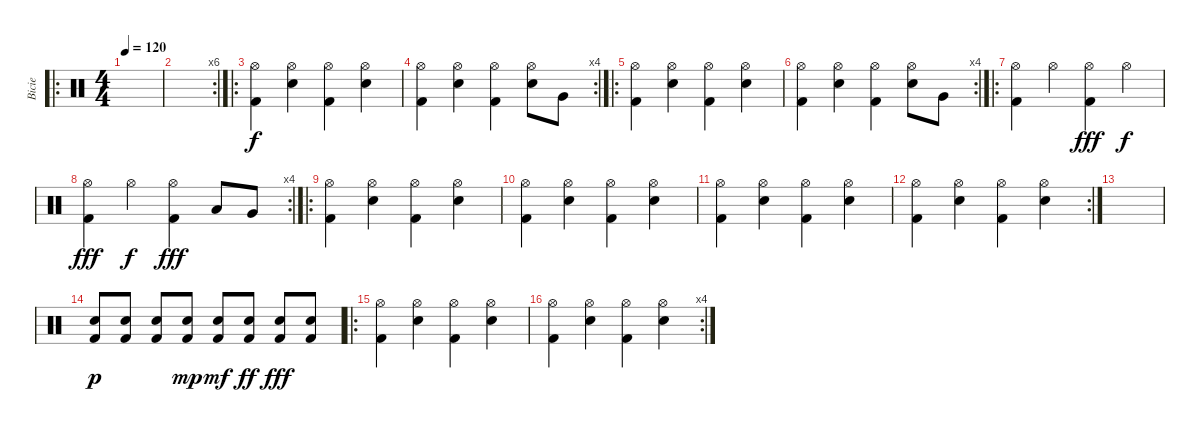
\track ("Bicie" "Bicie") {instrument percussion}
\staff {score}
\articulation defaults
\ro
\ts (4 4)
\tempo 120
\clef neutral
\ks c
|
\rc 6
|
\ro
("Hi-Hat (open)" "Kick (hit) 2").4 ("Hi-Hat (open)" "Snare (hit) 2").4 ("Hi-Hat (open)" "Kick (hit) 2").4 ("Hi-Hat (open)" "Snare (hit) 2").4 |
\rc 4
("Hi-Hat (open)" "Kick (hit) 2").4 ("Hi-Hat (open)" "Snare (hit) 2").4 ("Hi-Hat (open)" "Kick (hit) 2").4 ("Hi-Hat (open)" "Snare (hit) 2").8 "Very Low Tom (hit)".8 |
\ro
("Hi-Hat (open)" "Kick (hit) 2").4 ("Hi-Hat (open)" "Snare (hit) 2").4 ("Hi-Hat (open)" "Kick (hit) 2").4 ("Hi-Hat (open)" "Snare (hit) 2").4 |
\rc 4
("Hi-Hat (open)" "Kick (hit) 2").4 ("Hi-Hat (open)" "Snare (hit) 2").4 ("Hi-Hat (open)" "Kick (hit) 2").4 ("Hi-Hat (open)" "Snare (hit) 2").8 "Very Low Tom (hit)".8 |
\ro
("Hi-Hat (open)" "Kick (hit) 2").4 "Hi-Hat (open)".4{dy f} ("Hi-Hat (open)" "Kick (hit) 2").4{dy fff} "Hi-Hat (open)".4{dy f} |
\rc 4
("Hi-Hat (open)" "Kick (hit) 2").4{dy fff} "Hi-Hat (open)".4{dy f} ("Hi-Hat (open)" "Kick (hit) 2").4{dy fff} "Low Tom (hit)".8 "Very Low Tom (hit)".8 |
\ro
("Hi-Hat (open)" "Kick (hit) 2").4 ("Hi-Hat (open)" "Snare (hit) 2").4 ("Hi-Hat (open)" "Kick (hit) 2").4 ("Hi-Hat (open)" "Snare (hit) 2").4 |
("Hi-Hat (open)" "Kick (hit) 2").4 ("Hi-Hat (open)" "Snare (hit) 2").4 ("Hi-Hat (open)" "Kick (hit) 2").4 ("Hi-Hat (open)" "Snare (hit) 2").4 |
("Hi-Hat (open)" "Kick (hit) 2").4 ("Hi-Hat (open)" "Snare (hit) 2").4 ("Hi-Hat (open)" "Kick (hit) 2").4 ("Hi-Hat (open)" "Snare (hit) 2").4 |
\rc 2
("Hi-Hat (open)" "Kick (hit) 2").4 ("Hi-Hat (open)" "Snare (hit) 2").4 ("Hi-Hat (open)" "Kick (hit) 2").4 ("Hi-Hat (open)" "Snare (hit) 2").4 |
|
("Kick (hit) 2" "Electric Snare (hit)").8{dy p} ("Kick (hit) 2" "Electric Snare (hit)").8 ("Kick (hit) 2" "Electric Snare (hit)").8 ("Kick (hit) 2" "Electric Snare (hit)").8{dy mp} ("Kick (hit) 2" "Electric Snare (hit)").8{dy mf} ("Kick (hit) 2" "Electric Snare (hit)").8{dy ff} ("Kick (hit) 2" "Electric Snare (hit)").8{dy fff} ("Kick (hit) 2" "Electric Snare (hit)").8 |
\ro
("Hi-Hat (open)" "Kick (hit) 2").4 ("Hi-Hat (open)" "Snare (hit) 2").4 ("Hi-Hat (open)" "Kick (hit) 2").4 ("Hi-Hat (open)" "Snare (hit) 2").4 |
\rc 4
("Hi-Hat (open)" "Kick (hit) 2").4 ("Hi-Hat (open)" "Snare (hit) 2").4 ("Hi-Hat (open)" "Kick (hit) 2").4 ("Hi-Hat (open)" "Snare (hit) 2").4
